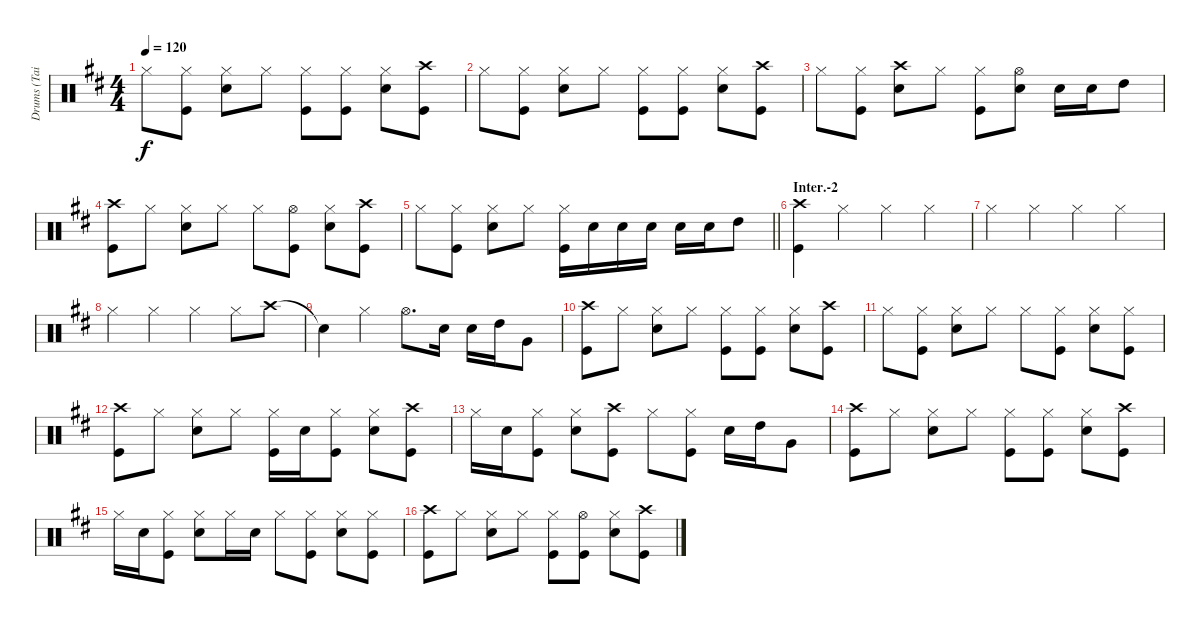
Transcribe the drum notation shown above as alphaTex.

\track ("Drums (Tainaka Ritsu)" "Drums (Tai") {instrument percussion}
\staff {score}
\articulation defaults
\ts (4 4)
\tempo 120
\clef neutral
\ks d "Hi-Hat (closed)".8{dy f}
("Hi-Hat (closed)" "Kick (hit)").8 ("Hi-Hat (closed)" "Snare (hit) 2").8 "Hi-Hat (closed)".8 ("Hi-Hat (closed)" "Kick (hit)").8 ("Hi-Hat (closed)" "Kick (hit)").8 ("Hi-Hat (closed)" "Snare (hit) 2").8 ("Crash high (hit)" "Kick (hit)").8 |
"Hi-Hat (closed)".8 ("Hi-Hat (closed)" "Kick (hit)").8 ("Hi-Hat (closed)" "Snare (hit) 2").8 "Hi-Hat (closed)".8 ("Hi-Hat (closed)" "Kick (hit)").8 ("Hi-Hat (closed)" "Kick (hit)").8 ("Hi-Hat (closed)" "Snare (hit) 2").8 ("Crash high (hit)" "Kick (hit)").8 |
"Hi-Hat (closed)".8 ("Hi-Hat (closed)" "Kick (hit)").8 ("Crash high (hit)" "Snare (hit) 2").8 "Hi-Hat (closed)".8 ("Hi-Hat (closed)" "Kick (hit)").8 ("Hi-Hat (open)" "Snare (hit) 2").8 "Snare (hit) 2".16 "Snare (hit) 2".16 "High Tom (hit)".8 |
("Crash high (hit)" "Kick (hit)").8 "Hi-Hat (closed)".8 ("Hi-Hat (closed)" "Snare (hit) 2").8 "Hi-Hat (closed)".8 "Hi-Hat (closed)".8 ("Hi-Hat (open)" "Kick (hit)").8 ("Hi-Hat (closed)" "Snare (hit) 2").8 ("Crash high (hit)" "Kick (hit)").8 |
\barLineRight lightlight "Hi-Hat (closed)".8
("Hi-Hat (closed)" "Kick (hit)").8 ("Hi-Hat (closed)" "Snare (hit) 2").8 "Hi-Hat (closed)".8 ("Hi-Hat (closed)" "Kick (hit)").16 "Snare (hit) 2".16 "Snare (hit) 2".16 "Snare (hit) 2".16 "Snare (hit) 2".16 "Snare (hit) 2".16 "High Tom (hit)".8 |
\section ("" "Inter.-2")
("Crash high (hit)" "Kick (hit)").4 "Hi-Hat (closed)".4 "Hi-Hat (closed)".4 "Hi-Hat (closed)".4 |
"Hi-Hat (closed)".4 "Hi-Hat (closed)".4 "Hi-Hat (closed)".4 "Hi-Hat (closed)".4 |
"Hi-Hat (closed)".4 "Hi-Hat (closed)".4 "Hi-Hat (closed)".4 "Hi-Hat (closed)".8 "Crash high (hit)".8 |
"Snare (hit)"{t}.4 "Hi-Hat (closed)".4 "Hi-Hat (open)".8{d} "Snare (hit) 2".16 "Snare (hit) 2".16 "High Tom (hit)".16 "Very Low Tom (hit)".8 |
("Crash high (hit)" "Kick (hit)").8 "Hi-Hat (closed)".8 ("Hi-Hat (closed)" "Snare (hit) 2").8 "Hi-Hat (closed)".8 ("Hi-Hat (closed)" "Kick (hit)").8 ("Hi-Hat (closed)" "Kick (hit)").8 ("Hi-Hat (closed)" "Snare (hit) 2").8 ("Crash high (hit)" "Kick (hit)").8 |
"Hi-Hat (closed)".8 ("Hi-Hat (closed)" "Kick (hit)").8 ("Hi-Hat (closed)" "Snare (hit) 2").8 "Hi-Hat (closed)".8 "Hi-Hat (closed)".8 ("Hi-Hat (closed)" "Kick (hit)").8 ("Hi-Hat (closed)" "Snare (hit) 2").8 ("Hi-Hat (closed)" "Kick (hit)").8 |
("Crash high (hit)" "Kick (hit)").8 "Hi-Hat (closed)".8 ("Hi-Hat (closed)" "Snare (hit) 2").8 "Hi-Hat (closed)".8 ("Hi-Hat (closed)" "Kick (hit)").16 "Snare (hit) 2".16 ("Hi-Hat (closed)" "Kick (hit)").8 ("Hi-Hat (closed)" "Snare (hit) 2").8 ("Crash high (hit)" "Kick (hit)").8 |
"Hi-Hat (closed)".16 "Snare (hit) 2".16 ("Hi-Hat (closed)" "Kick (hit)").8 ("Hi-Hat (closed)" "Snare (hit) 2").8 ("Crash high (hit)" "Kick (hit)").8 "Hi-Hat (closed)".8 ("Hi-Hat (closed)" "Kick (hit)").8 "Snare (hit) 2".16 "High Tom (hit)".16 "Very Low Tom (hit)".8 |
("Crash high (hit)" "Kick (hit)").8 "Hi-Hat (closed)".8 ("Hi-Hat (closed)" "Snare (hit) 2").8 "Hi-Hat (closed)".8 ("Hi-Hat (closed)" "Kick (hit)").8 ("Hi-Hat (closed)" "Kick (hit)").8 ("Hi-Hat (closed)" "Snare (hit) 2").8 ("Crash high (hit)" "Kick (hit)").8 |
"Hi-Hat (closed)".16 "Snare (hit) 2".16 ("Hi-Hat (closed)" "Kick (hit)").8 ("Hi-Hat (closed)" "Snare (hit) 2").8 "Hi-Hat (closed)".16 "Snare (hit) 2".16 "Hi-Hat (closed)".8 ("Hi-Hat (closed)" "Kick (hit)").8 ("Hi-Hat (closed)" "Snare (hit) 2").8 ("Hi-Hat (closed)" "Kick (hit)").8 |
("Crash high (hit)" "Kick (hit)").8 "Hi-Hat (closed)".8 ("Hi-Hat (closed)" "Snare (hit) 2").8 "Hi-Hat (closed)".8 ("Hi-Hat (closed)" "Kick (hit)").8 ("Hi-Hat (open)" "Kick (hit)").8 ("Hi-Hat (closed)" "Snare (hit) 2").8 ("Crash high (hit)" "Kick (hit)").8
